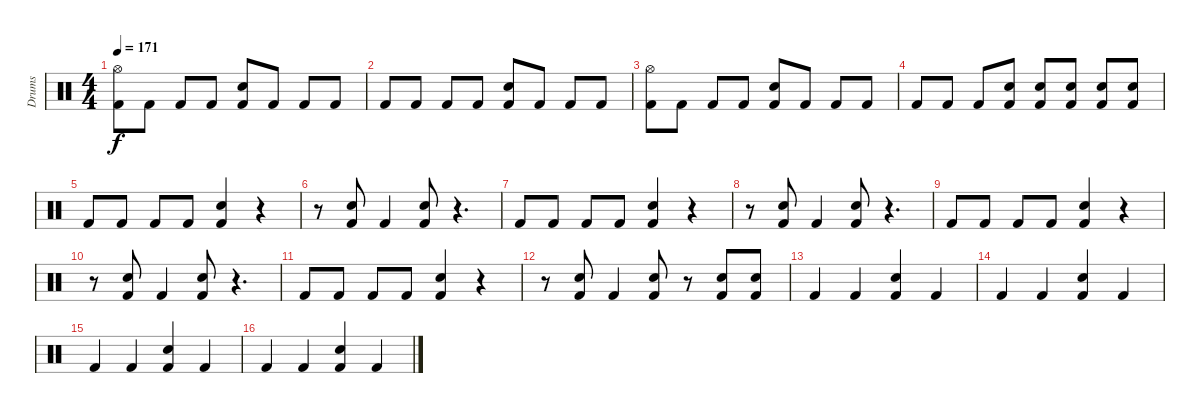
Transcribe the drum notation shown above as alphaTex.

\track ("Drums" "Drums") {instrument percussion}
\staff {score}
\articulation defaults
\ts (4 4)
\tempo 171
\clef neutral
\ks c
("Hi-Hat (open)" "Kick (hit) 2").8{dy f} "Kick (hit) 2".8 "Kick (hit) 2".8 "Kick (hit) 2".8 ("Snare (hit) 2" "Kick (hit) 2").8 "Kick (hit) 2".8 "Kick (hit) 2".8 "Kick (hit) 2".8 |
"Kick (hit) 2".8 "Kick (hit) 2".8 "Kick (hit) 2".8 "Kick (hit) 2".8 ("Snare (hit) 2" "Kick (hit) 2").8 "Kick (hit) 2".8 "Kick (hit) 2".8 "Kick (hit) 2".8 |
("Hi-Hat (open)" "Kick (hit) 2").8 "Kick (hit) 2".8 "Kick (hit) 2".8 "Kick (hit) 2".8 ("Snare (hit) 2" "Kick (hit) 2").8 "Kick (hit) 2".8 "Kick (hit) 2".8 "Kick (hit) 2".8 |
"Kick (hit) 2".8 "Kick (hit) 2".8 "Kick (hit) 2".8 ("Snare (hit) 2" "Kick (hit) 2").8 ("Snare (hit) 2" "Kick (hit) 2").8 ("Snare (hit) 2" "Kick (hit) 2").8 ("Snare (hit) 2" "Kick (hit) 2").8 ("Snare (hit) 2" "Kick (hit) 2").8 |
"Kick (hit) 2".8 "Kick (hit) 2".8 "Kick (hit) 2".8 "Kick (hit) 2".8 ("Snare (hit) 2" "Kick (hit) 2").4 r.4 |
r.8 ("Snare (hit) 2" "Kick (hit) 2").8 "Kick (hit) 2".4 ("Snare (hit) 2" "Kick (hit) 2").8 r.4{d} |
"Kick (hit) 2".8 "Kick (hit) 2".8 "Kick (hit) 2".8 "Kick (hit) 2".8 ("Snare (hit) 2" "Kick (hit) 2").4 r.4 |
r.8 ("Snare (hit) 2" "Kick (hit) 2").8 "Kick (hit) 2".4 ("Snare (hit) 2" "Kick (hit) 2").8 r.4{d} |
"Kick (hit) 2".8 "Kick (hit) 2".8 "Kick (hit) 2".8 "Kick (hit) 2".8 ("Snare (hit) 2" "Kick (hit) 2").4 r.4 |
r.8 ("Snare (hit) 2" "Kick (hit) 2").8 "Kick (hit) 2".4 ("Snare (hit) 2" "Kick (hit) 2").8 r.4{d} |
"Kick (hit) 2".8 "Kick (hit) 2".8 "Kick (hit) 2".8 "Kick (hit) 2".8 ("Snare (hit) 2" "Kick (hit) 2").4 r.4 |
r.8 ("Snare (hit) 2" "Kick (hit) 2").8 "Kick (hit) 2".4 ("Snare (hit) 2" "Kick (hit) 2").8 r.8 ("Snare (hit) 2" "Kick (hit) 2").8 ("Snare (hit) 2" "Kick (hit) 2").8 |
"Kick (hit) 2".4 "Kick (hit) 2".4 ("Snare (hit) 2" "Kick (hit) 2").4 "Kick (hit) 2".4 |
"Kick (hit) 2".4 "Kick (hit) 2".4 ("Snare (hit) 2" "Kick (hit) 2").4 "Kick (hit) 2".4 |
"Kick (hit) 2".4 "Kick (hit) 2".4 ("Snare (hit) 2" "Kick (hit) 2").4 "Kick (hit) 2".4 |
"Kick (hit) 2".4 "Kick (hit) 2".4 ("Snare (hit) 2" "Kick (hit) 2").4 "Kick (hit) 2".4
